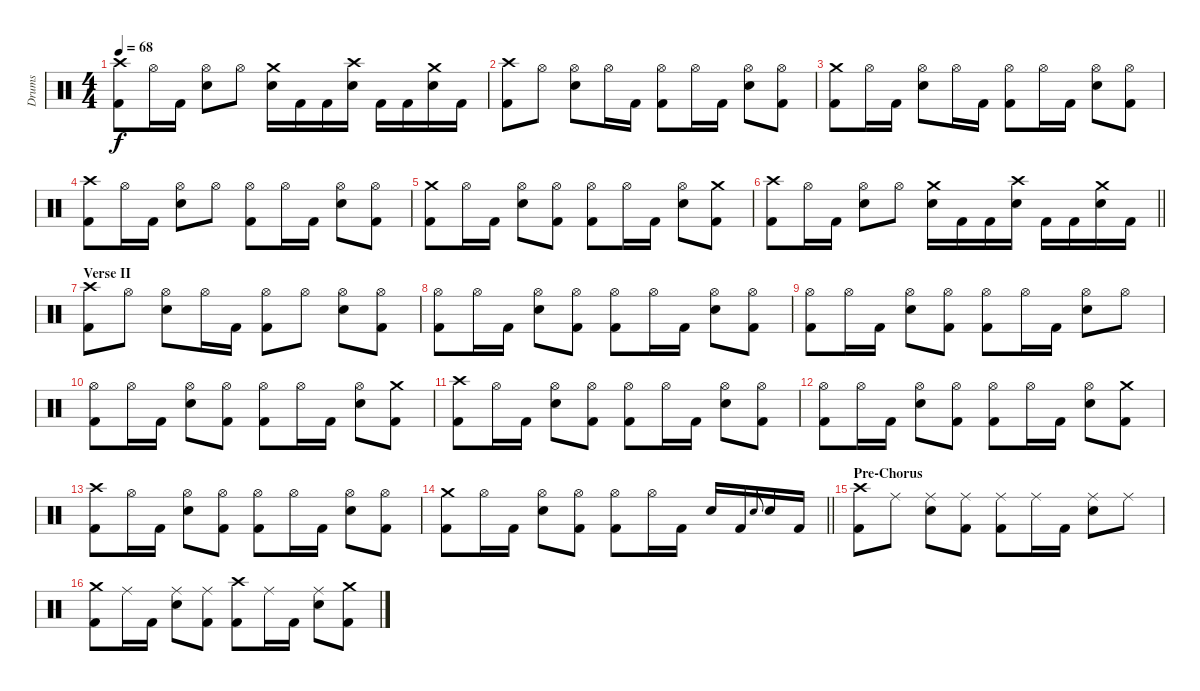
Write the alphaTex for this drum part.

\track ("Drums" "Drums") {instrument percussion}
\staff {score}
\articulation defaults
\ts (4 4)
\tempo 68
\clef neutral
\ks c
("Crash high (hit)" "Kick (hit) 2").8{dy f} "Hi-Hat (open)".16 "Kick (hit) 2".16 ("Hi-Hat (open)" "Snare (hit) 2").8 "Hi-Hat (open)".8 ("Crash medium (hit)" "Snare (hit) 2").16 "Kick (hit) 2".16 "Kick (hit) 2".16 ("Crash high (hit)" "Snare (hit) 2").16 "Kick (hit) 2".16 "Kick (hit) 2".16 ("Crash medium (hit)" "Snare (hit) 2").16 "Kick (hit) 2".16 |
("Crash high (hit)" "Kick (hit) 2").8 "Hi-Hat (open)".8 ("Hi-Hat (open)" "Snare (hit) 2").8 "Hi-Hat (open)".16 "Kick (hit) 2".16 ("Hi-Hat (open)" "Kick (hit) 2").8 "Hi-Hat (open)".16 "Kick (hit) 2".16 ("Hi-Hat (open)" "Snare (hit) 2").8 ("Hi-Hat (open)" "Kick (hit) 2").8 |
("Crash medium (hit)" "Kick (hit) 2").8 "Hi-Hat (open)".16 "Kick (hit) 2".16 ("Hi-Hat (open)" "Snare (hit) 2").8 "Hi-Hat (open)".16 "Kick (hit) 2".16 ("Hi-Hat (open)" "Kick (hit) 2").8 "Hi-Hat (open)".16 "Kick (hit) 2".16 ("Hi-Hat (open)" "Snare (hit) 2").8 ("Hi-Hat (open)" "Kick (hit) 2").8 |
("Crash high (hit)" "Kick (hit) 2").8 "Hi-Hat (open)".16 "Kick (hit) 2".16 ("Hi-Hat (open)" "Snare (hit) 2").8 "Hi-Hat (open)".8 ("Hi-Hat (open)" "Kick (hit) 2").8 "Hi-Hat (open)".16 "Kick (hit) 2".16 ("Hi-Hat (open)" "Snare (hit) 2").8 ("Hi-Hat (open)" "Kick (hit) 2").8 |
("Crash medium (hit)" "Kick (hit) 2").8 "Hi-Hat (open)".16 "Kick (hit) 2".16 ("Hi-Hat (open)" "Snare (hit) 2").8 ("Hi-Hat (open)" "Kick (hit) 2").8 ("Hi-Hat (open)" "Kick (hit) 2").8 "Hi-Hat (open)".16 "Kick (hit) 2".16 ("Hi-Hat (open)" "Snare (hit) 2").8 ("Crash medium (hit)" "Kick (hit) 2").8 |
\barLineRight lightlight
("Crash high (hit)" "Kick (hit) 2").8 "Hi-Hat (open)".16 "Kick (hit) 2".16 ("Hi-Hat (open)" "Snare (hit) 2").8 "Hi-Hat (open)".8 ("Crash medium (hit)" "Snare (hit) 2").16 "Kick (hit) 2".16 "Kick (hit) 2".16 ("Crash high (hit)" "Snare (hit) 2").16 "Kick (hit) 2".16 "Kick (hit) 2".16 ("Crash medium (hit)" "Snare (hit) 2").16 "Kick (hit) 2".16 |
\section ("" "Verse II")
("Crash high (hit)" "Kick (hit) 2").8 "Hi-Hat (open)".8 ("Hi-Hat (open)" "Snare (hit) 2").8 "Hi-Hat (open)".16 "Kick (hit) 2".16 ("Hi-Hat (open)" "Kick (hit) 2").8 "Hi-Hat (open)".8 ("Hi-Hat (open)" "Snare (hit) 2").8 ("Hi-Hat (open)" "Kick (hit) 2").8 |
("Hi-Hat (open)" "Kick (hit) 2").8 "Hi-Hat (open)".16 "Kick (hit) 2".16 ("Hi-Hat (open)" "Snare (hit) 2").8 ("Hi-Hat (open)" "Kick (hit) 2").8 ("Hi-Hat (open)" "Kick (hit) 2").8 "Hi-Hat (open)".16 "Kick (hit) 2".16 ("Hi-Hat (open)" "Snare (hit) 2").8 ("Hi-Hat (open)" "Kick (hit) 2").8 |
("Hi-Hat (open)" "Kick (hit) 2").8 "Hi-Hat (open)".16 "Kick (hit) 2".16 ("Hi-Hat (open)" "Snare (hit) 2").8 ("Hi-Hat (open)" "Kick (hit) 2").8 ("Hi-Hat (open)" "Kick (hit) 2").8 "Hi-Hat (open)".16 "Kick (hit) 2".16 ("Hi-Hat (open)" "Snare (hit) 2").8 "Hi-Hat (open)".8 |
("Hi-Hat (open)" "Kick (hit) 2").8 "Hi-Hat (open)".16 "Kick (hit) 2".16 ("Hi-Hat (open)" "Snare (hit) 2").8 ("Hi-Hat (open)" "Kick (hit) 2").8 ("Hi-Hat (open)" "Kick (hit) 2").8 "Hi-Hat (open)".16 "Kick (hit) 2".16 ("Hi-Hat (open)" "Snare (hit) 2").8 ("Crash medium (hit)" "Kick (hit) 2").8 |
("Crash high (hit)" "Kick (hit) 2").8 "Hi-Hat (open)".16 "Kick (hit) 2".16 ("Hi-Hat (open)" "Snare (hit) 2").8 ("Hi-Hat (open)" "Kick (hit) 2").8 ("Hi-Hat (open)" "Kick (hit) 2").8 "Hi-Hat (open)".16 "Kick (hit) 2".16 ("Hi-Hat (open)" "Snare (hit) 2").8 ("Hi-Hat (open)" "Kick (hit) 2").8 |
("Hi-Hat (open)" "Kick (hit) 2").8 "Hi-Hat (open)".16 "Kick (hit) 2".16 ("Hi-Hat (open)" "Snare (hit) 2").8 ("Hi-Hat (open)" "Kick (hit) 2").8 ("Hi-Hat (open)" "Kick (hit) 2").8 "Hi-Hat (open)".16 "Kick (hit) 2".16 ("Hi-Hat (open)" "Snare (hit) 2").8 ("Crash medium (hit)" "Kick (hit) 2").8 |
("Crash high (hit)" "Kick (hit) 2").8 "Hi-Hat (open)".16 "Kick (hit) 2".16 ("Hi-Hat (open)" "Snare (hit) 2").8 ("Hi-Hat (open)" "Kick (hit) 2").8 ("Hi-Hat (open)" "Kick (hit) 2").8 "Hi-Hat (open)".16 "Kick (hit) 2".16 ("Hi-Hat (open)" "Snare (hit) 2").8 ("Hi-Hat (open)" "Kick (hit) 2").8 |
\barLineRight lightlight
("Crash medium (hit)" "Kick (hit) 2").8 "Hi-Hat (open)".16 "Kick (hit) 2".16 ("Hi-Hat (open)" "Snare (hit) 2").8 ("Hi-Hat (open)" "Kick (hit) 2").8 ("Hi-Hat (open)" "Kick (hit) 2").8 "Hi-Hat (open)".16 "Kick (hit) 2".16 "Snare (hit) 2".16 "Kick (hit) 2".16 "Snare (hit) 2".8{gr onbeat} "Snare (hit) 2".16 "Kick (hit) 2".16 |
\section ("" "Pre-Chorus")
("Crash high (hit)" "Kick (hit) 2").8 "Ride (middle)".8 ("Ride (middle)" "Snare (hit) 2").8 ("Ride (middle)" "Kick (hit) 2").8 ("Ride (middle)" "Kick (hit) 2").8 "Ride (middle)".16 "Kick (hit) 2".16 ("Ride (middle)" "Snare (hit) 2").8 "Ride (middle)".8 |
("Crash medium (hit)" "Kick (hit) 2").8 "Ride (middle)".16 "Kick (hit) 2".16 ("Ride (middle)" "Snare (hit) 2").8 ("Ride (middle)" "Kick (hit) 2").8 ("Crash high (hit)" "Kick (hit) 2").8 "Ride (middle)".16 "Kick (hit) 2".16 ("Ride (middle)" "Snare (hit) 2").8 ("Crash medium (hit)" "Kick (hit) 2").8
